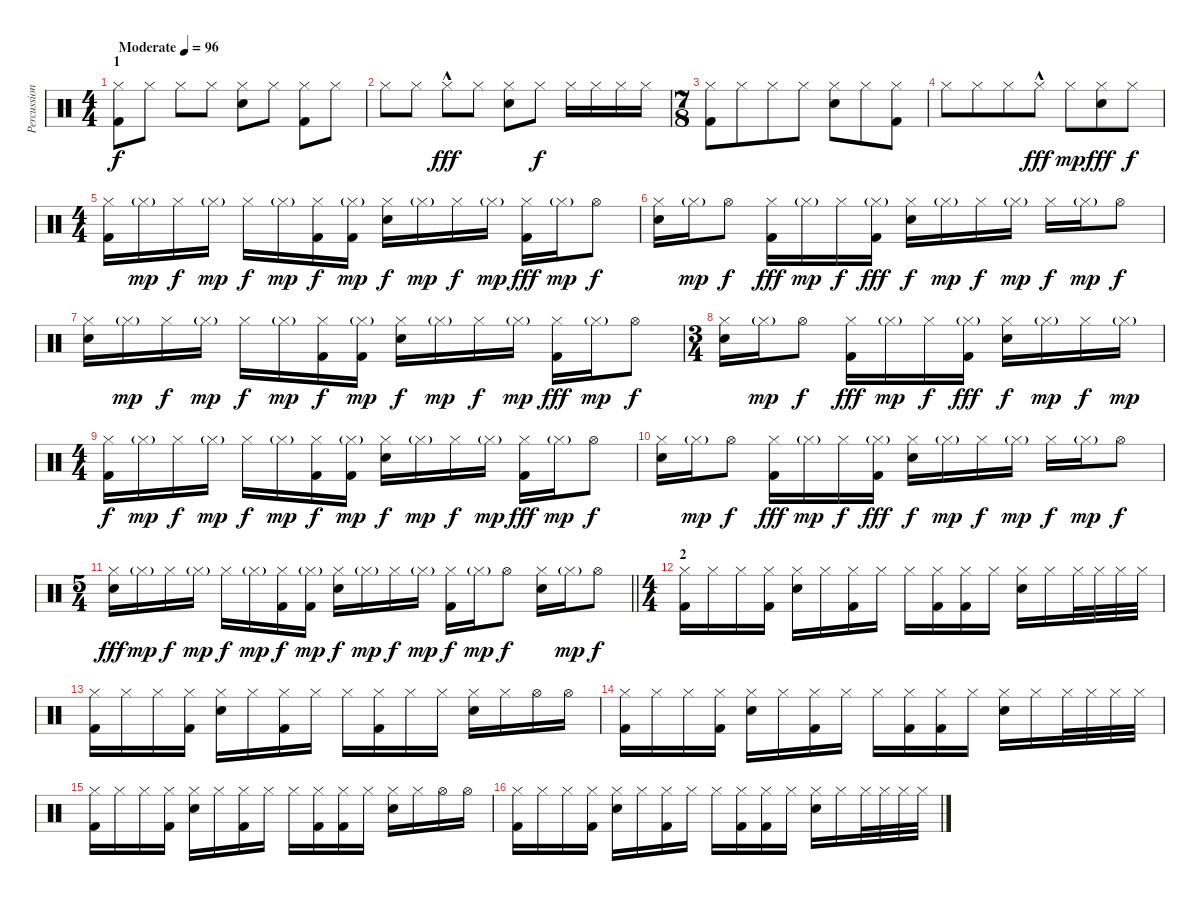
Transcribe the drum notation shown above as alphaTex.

\track ("Percussion" "Percussion") {instrument percussion}
\staff {score}
\articulation defaults
\ts (4 4)
\section ("" "1")
\tempo (96 "Moderate")
\clef neutral
\ks c
("Hi-Hat (closed)" "Kick (hit) 2").8{dy f} "Hi-Hat (closed)".8 "Hi-Hat (closed)".8 "Hi-Hat (closed)".8 ("Hi-Hat (closed)" "Snare (hit) 2").8 "Hi-Hat (closed)".8 ("Hi-Hat (closed)" "Kick (hit) 2").8 "Hi-Hat (closed)".8 |
"Hi-Hat (closed)".8 "Hi-Hat (closed)".8 "Hi-Hat (closed)"{hac}.8{dy fff} "Hi-Hat (closed)".8 ("Hi-Hat (closed)" "Snare (hit) 2").8 "Hi-Hat (closed)".8{dy f} "Hi-Hat (closed)".16 "Hi-Hat (closed)".16 "Hi-Hat (closed)".16 "Hi-Hat (closed)".16 |
\ts (7 8)
("Hi-Hat (closed)" "Kick (hit) 2").8 "Hi-Hat (closed)".8 "Hi-Hat (closed)".8 "Hi-Hat (closed)".8 ("Hi-Hat (closed)" "Snare (hit) 2").8 "Hi-Hat (closed)".8 ("Hi-Hat (closed)" "Kick (hit) 2").8 |
"Hi-Hat (closed)".8 "Hi-Hat (closed)".8 "Hi-Hat (closed)".8 "Hi-Hat (closed)"{hac}.8{dy fff} "Hi-Hat (closed)".8{dy mp} ("Hi-Hat (closed)" "Snare (hit) 2").8{dy fff} "Hi-Hat (closed)".8{dy f} |
\ts (4 4)
("Hi-Hat (closed)" "Kick (hit) 2").16 "Hi-Hat (closed)"{g}.16{dy mp} "Hi-Hat (closed)".16{dy f} "Hi-Hat (closed)"{g}.16{dy mp} "Hi-Hat (closed)".16{dy f} "Hi-Hat (closed)"{g}.16{dy mp} ("Hi-Hat (closed)" "Kick (hit) 2").16{dy f} ("Hi-Hat (closed)"{g} "Kick (hit) 2").16{dy mp} ("Hi-Hat (closed)" "Snare (hit) 2").16{dy f} "Hi-Hat (closed)"{g}.16{dy mp} "Hi-Hat (closed)".16{dy f} "Hi-Hat (closed)"{g}.16{dy mp} ("Hi-Hat (closed)" "Kick (hit) 2").16{dy fff} "Hi-Hat (closed)"{g}.16{dy mp} "Hi-Hat (open)".8{dy f} |
("Hi-Hat (closed)" "Snare (hit) 2").16 "Hi-Hat (closed)"{g}.16{dy mp} "Hi-Hat (open)".8{dy f} ("Hi-Hat (closed)" "Kick (hit) 2").16{dy fff} "Hi-Hat (closed)"{g}.16{dy mp} "Hi-Hat (closed)".16{dy f} ("Hi-Hat (closed)"{g} "Kick (hit) 2").16{dy fff} ("Hi-Hat (closed)" "Snare (hit) 2").16{dy f} "Hi-Hat (closed)"{g}.16{dy mp} "Hi-Hat (closed)".16{dy f} "Hi-Hat (closed)"{g}.16{dy mp} "Hi-Hat (closed)".16{dy f} "Hi-Hat (closed)"{g}.16{dy mp} "Hi-Hat (open)".8{dy f} |
("Hi-Hat (closed)" "Snare (hit) 2").16 "Hi-Hat (closed)"{g}.16{dy mp} "Hi-Hat (closed)".16{dy f} "Hi-Hat (closed)"{g}.16{dy mp} "Hi-Hat (closed)".16{dy f} "Hi-Hat (closed)"{g}.16{dy mp} ("Hi-Hat (closed)" "Kick (hit) 2").16{dy f} ("Hi-Hat (closed)"{g} "Kick (hit) 2").16{dy mp} ("Hi-Hat (closed)" "Snare (hit) 2").16{dy f} "Hi-Hat (closed)"{g}.16{dy mp} "Hi-Hat (closed)".16{dy f} "Hi-Hat (closed)"{g}.16{dy mp} ("Hi-Hat (closed)" "Kick (hit) 2").16{dy fff} "Hi-Hat (closed)"{g}.16{dy mp} "Hi-Hat (open)".8{dy f} |
\ts (3 4)
("Hi-Hat (closed)" "Snare (hit) 2").16 "Hi-Hat (closed)"{g}.16{dy mp} "Hi-Hat (open)".8{dy f} ("Hi-Hat (closed)" "Kick (hit) 2").16{dy fff} "Hi-Hat (closed)"{g}.16{dy mp} "Hi-Hat (closed)".16{dy f} ("Hi-Hat (closed)"{g} "Kick (hit) 2").16{dy fff} ("Hi-Hat (closed)" "Snare (hit) 2").16{dy f} "Hi-Hat (closed)"{g}.16{dy mp} "Hi-Hat (closed)".16{dy f} "Hi-Hat (closed)"{g}.16{dy mp} |
\ts (4 4)
("Hi-Hat (closed)" "Kick (hit) 2").16{dy f} "Hi-Hat (closed)"{g}.16{dy mp} "Hi-Hat (closed)".16{dy f} "Hi-Hat (closed)"{g}.16{dy mp} "Hi-Hat (closed)".16{dy f} "Hi-Hat (closed)"{g}.16{dy mp} ("Hi-Hat (closed)" "Kick (hit) 2").16{dy f} ("Hi-Hat (closed)"{g} "Kick (hit) 2").16{dy mp} ("Hi-Hat (closed)" "Snare (hit) 2").16{dy f} "Hi-Hat (closed)"{g}.16{dy mp} "Hi-Hat (closed)".16{dy f} "Hi-Hat (closed)"{g}.16{dy mp} ("Hi-Hat (closed)" "Kick (hit) 2").16{dy fff} "Hi-Hat (closed)"{g}.16{dy mp} "Hi-Hat (open)".8{dy f} |
("Hi-Hat (closed)" "Snare (hit) 2").16 "Hi-Hat (closed)"{g}.16{dy mp} "Hi-Hat (open)".8{dy f} ("Hi-Hat (closed)" "Kick (hit) 2").16{dy fff} "Hi-Hat (closed)"{g}.16{dy mp} "Hi-Hat (closed)".16{dy f} ("Hi-Hat (closed)"{g} "Kick (hit) 2").16{dy fff} ("Hi-Hat (closed)" "Snare (hit) 2").16{dy f} "Hi-Hat (closed)"{g}.16{dy mp} "Hi-Hat (closed)".16{dy f} "Hi-Hat (closed)"{g}.16{dy mp} "Hi-Hat (closed)".16{dy f} "Hi-Hat (closed)"{g}.16{dy mp} "Hi-Hat (open)".8{dy f} |
\ts (5 4)
\barLineRight lightlight
("Hi-Hat (closed)" "Snare (hit) 2").16{dy fff} "Hi-Hat (closed)"{g}.16{dy mp} "Hi-Hat (closed)".16{dy f} "Hi-Hat (closed)"{g}.16{dy mp} "Hi-Hat (closed)".16{dy f} "Hi-Hat (closed)"{g}.16{dy mp} ("Hi-Hat (closed)" "Kick (hit) 2").16{dy f} ("Hi-Hat (closed)"{g} "Kick (hit) 2").16{dy mp} ("Hi-Hat (closed)" "Snare (hit) 2").16{dy f} "Hi-Hat (closed)"{g}.16{dy mp} "Hi-Hat (closed)".16{dy f} "Hi-Hat (closed)"{g}.16{dy mp} ("Hi-Hat (closed)" "Kick (hit) 2").16{dy f} "Hi-Hat (closed)"{g}.16{dy mp} "Hi-Hat (open)".8{dy f} ("Hi-Hat (closed)" "Snare (hit) 2").16 "Hi-Hat (closed)"{g}.16{dy mp} "Hi-Hat (open)".8{dy f} |
\ts (4 4)
\section ("" "2")
("Hi-Hat (closed)" "Kick (hit) 2").16 "Hi-Hat (closed)".16 "Hi-Hat (closed)".16 ("Hi-Hat (closed)" "Kick (hit) 2").16 ("Hi-Hat (closed)" "Snare (hit) 2").16 "Hi-Hat (closed)".16 ("Hi-Hat (closed)" "Kick (hit) 2").16 "Hi-Hat (closed)".16 "Hi-Hat (closed)".16 ("Hi-Hat (closed)" "Kick (hit) 2").16 ("Hi-Hat (closed)" "Kick (hit) 2").16 "Hi-Hat (closed)".16 ("Hi-Hat (closed)" "Snare (hit) 2").16 "Hi-Hat (closed)".16 "Hi-Hat (closed)".32 "Hi-Hat (closed)".32 "Hi-Hat (closed)".32 "Hi-Hat (closed)".32 |
("Hi-Hat (closed)" "Kick (hit) 2").16 "Hi-Hat (closed)".16 "Hi-Hat (closed)".16 ("Hi-Hat (closed)" "Kick (hit) 2").16 ("Hi-Hat (closed)" "Snare (hit) 2").16 "Hi-Hat (closed)".16 ("Hi-Hat (closed)" "Kick (hit) 2").16 "Hi-Hat (closed)".16 "Hi-Hat (closed)".16 ("Hi-Hat (closed)" "Kick (hit) 2").16 "Hi-Hat (closed)".16 "Hi-Hat (closed)".16 ("Hi-Hat (closed)" "Snare (hit) 2").16 "Hi-Hat (closed)".16 "Hi-Hat (open)".16 "Hi-Hat (open)".16 |
("Hi-Hat (closed)" "Kick (hit) 2").16 "Hi-Hat (closed)".16 "Hi-Hat (closed)".16 ("Hi-Hat (closed)" "Kick (hit) 2").16 ("Hi-Hat (closed)" "Snare (hit) 2").16 "Hi-Hat (closed)".16 ("Hi-Hat (closed)" "Kick (hit) 2").16 "Hi-Hat (closed)".16 "Hi-Hat (closed)".16 ("Hi-Hat (closed)" "Kick (hit) 2").16 ("Hi-Hat (closed)" "Kick (hit) 2").16 "Hi-Hat (closed)".16 ("Hi-Hat (closed)" "Snare (hit) 2").16 "Hi-Hat (closed)".16 "Hi-Hat (closed)".32 "Hi-Hat (closed)".32 "Hi-Hat (closed)".32 "Hi-Hat (closed)".32 |
("Hi-Hat (closed)" "Kick (hit) 2").16 "Hi-Hat (closed)".16 "Hi-Hat (closed)".16 ("Hi-Hat (closed)" "Kick (hit) 2").16 ("Hi-Hat (closed)" "Snare (hit) 2").16 "Hi-Hat (closed)".16 ("Hi-Hat (closed)" "Kick (hit) 2").16 "Hi-Hat (closed)".16 "Hi-Hat (closed)".16 ("Hi-Hat (closed)" "Kick (hit) 2").16 ("Hi-Hat (closed)" "Kick (hit) 2").16 "Hi-Hat (closed)".16 ("Hi-Hat (closed)" "Snare (hit) 2").16 "Hi-Hat (closed)".16 "Hi-Hat (open)".16 "Hi-Hat (open)".16 |
("Hi-Hat (closed)" "Kick (hit) 2").16 "Hi-Hat (closed)".16 "Hi-Hat (closed)".16 ("Hi-Hat (closed)" "Kick (hit) 2").16 ("Hi-Hat (closed)" "Snare (hit) 2").16 "Hi-Hat (closed)".16 ("Hi-Hat (closed)" "Kick (hit) 2").16 "Hi-Hat (closed)".16 "Hi-Hat (closed)".16 ("Hi-Hat (closed)" "Kick (hit) 2").16 ("Hi-Hat (closed)" "Kick (hit) 2").16 "Hi-Hat (closed)".16 ("Hi-Hat (closed)" "Snare (hit) 2").16 "Hi-Hat (closed)".16 "Hi-Hat (closed)".32 "Hi-Hat (closed)".32 "Hi-Hat (closed)".32 "Hi-Hat (closed)".32
